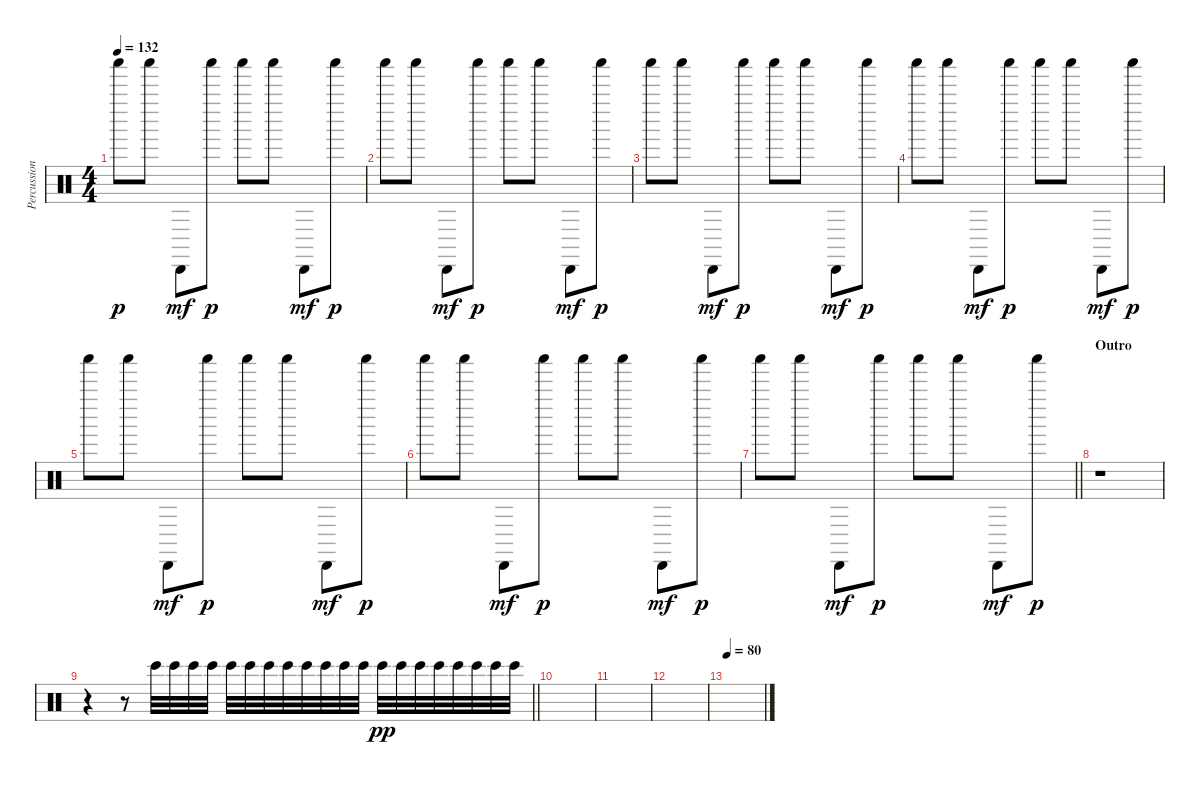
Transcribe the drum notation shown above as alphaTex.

\track ("Percussions" "Percussion") {instrument percussion}
\staff {score}
\articulation defaults
\ts (4 4)
\tempo 132
\clef neutral
\ks c "Shaker (hit)".8{dy p} "Shaker (hit)".8 "Cabasa (hit)".8{dy mf} "Shaker (hit)".8{dy p} "Shaker (hit)".8 "Shaker (hit)".8 "Cabasa (hit)".8{dy mf} "Shaker (hit)".8{dy p}
|
"Shaker (hit)".8 "Shaker (hit)".8 "Cabasa (hit)".8{dy mf} "Shaker (hit)".8{dy p} "Shaker (hit)".8 "Shaker (hit)".8 "Cabasa (hit)".8{dy mf} "Shaker (hit)".8{dy p} |
"Shaker (hit)".8 "Shaker (hit)".8 "Cabasa (hit)".8{dy mf} "Shaker (hit)".8{dy p} "Shaker (hit)".8 "Shaker (hit)".8 "Cabasa (hit)".8{dy mf} "Shaker (hit)".8{dy p} |
"Shaker (hit)".8 "Shaker (hit)".8 "Cabasa (hit)".8{dy mf} "Shaker (hit)".8{dy p} "Shaker (hit)".8 "Shaker (hit)".8 "Cabasa (hit)".8{dy mf} "Shaker (hit)".8{dy p} |
"Shaker (hit)".8 "Shaker (hit)".8 "Cabasa (hit)".8{dy mf} "Shaker (hit)".8{dy p} "Shaker (hit)".8 "Shaker (hit)".8 "Cabasa (hit)".8{dy mf} "Shaker (hit)".8{dy p} |
"Shaker (hit)".8 "Shaker (hit)".8 "Cabasa (hit)".8{dy mf} "Shaker (hit)".8{dy p} "Shaker (hit)".8 "Shaker (hit)".8 "Cabasa (hit)".8{dy mf} "Shaker (hit)".8{dy p} |
\barLineRight lightlight "Shaker (hit)".8 "Shaker (hit)".8 "Cabasa (hit)".8{dy mf} "Shaker (hit)".8{dy p} "Shaker (hit)".8 "Shaker (hit)".8 "Cabasa (hit)".8{dy mf} "Shaker (hit)".8{dy p}
|
\section ("" "Outro")
r.1 |
\barLineRight lightlight
r.4 r.8 "Bongo High (hit)".32 "Bongo High (hit)".32 "Bongo High (hit)".32 "Bongo High (hit)".32 "Bongo High (hit)".32 "Bongo High (hit)".32 "Bongo High (hit)".32 "Bongo High (hit)".32 "Bongo High (hit)".32 "Bongo High (hit)".32 "Bongo High (hit)".32 "Bongo High (hit)".32 "Bongo High (hit)".32{dy pp} "Bongo High (hit)".32 "Bongo High (hit)".32 "Bongo High (hit)".32 "Bongo High (hit)".32 "Bongo High (hit)".32 "Bongo High (hit)".32 "Bongo High (hit)".32 |
|
|
|
\tempo 80
